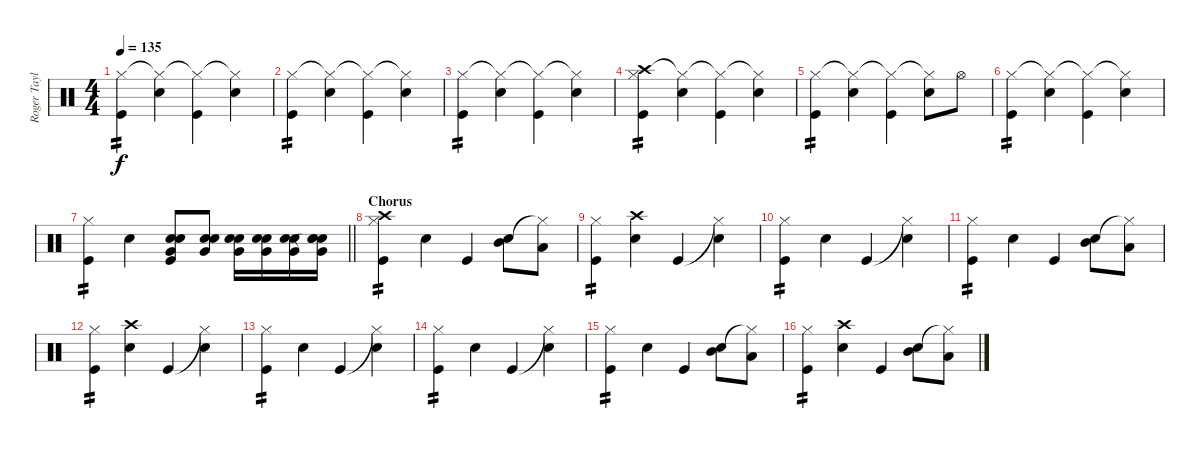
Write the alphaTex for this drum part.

\track ("Roger Taylor" "Roger Tayl") {instrument percussion}
\staff {score}
\articulation defaults
\ts (4 4)
\tempo 135
\clef neutral
\ks c
("Hi-Hat (closed)" "Kick (hit)").4{tp 2 dy f} ("Hi-Hat (closed)"{t} "Snare (hit) 2").4 ("Hi-Hat (closed)"{t} "Kick (hit)").4 ("Hi-Hat (closed)"{t} "Snare (hit) 2").4 |
("Hi-Hat (closed)" "Kick (hit)").4{tp 2} ("Hi-Hat (closed)"{t} "Snare (hit) 2").4 ("Hi-Hat (closed)"{t} "Kick (hit)").4 ("Hi-Hat (closed)"{t} "Snare (hit) 2").4 |
("Hi-Hat (closed)" "Kick (hit)").4{tp 2} ("Hi-Hat (closed)"{t} "Snare (hit) 2").4 ("Hi-Hat (closed)"{t} "Kick (hit)").4 ("Hi-Hat (closed)"{t} "Snare (hit) 2").4 |
("Crash high (hit)" "Hi-Hat (closed)" "Kick (hit)").4{tp 2} ("Hi-Hat (closed)"{t} "Snare (hit) 2").4 ("Hi-Hat (closed)"{t} "Kick (hit)").4 ("Hi-Hat (closed)"{t} "Snare (hit) 2").4 |
("Hi-Hat (closed)" "Kick (hit)").4{tp 2} ("Hi-Hat (closed)"{t} "Snare (hit) 2").4 ("Hi-Hat (closed)"{t} "Kick (hit)").4 ("Hi-Hat (closed)"{t} "Snare (hit) 2").8 "Hi-Hat (open)".8 |
("Hi-Hat (closed)" "Kick (hit)").4{tp 2} ("Hi-Hat (closed)"{t} "Snare (hit) 2").4 ("Hi-Hat (closed)"{t} "Kick (hit)").4 ("Hi-Hat (closed)"{t} "Snare (hit) 2").4 |
\barLineRight lightlight
("Hi-Hat (closed)" "Kick (hit)").4{tp 2} "Snare (hit) 2".4 ("Very Low Tom (hit)" "Electric Snare (hit)" "Snare (hit) 2" "Kick (hit)").8 ("Very Low Tom (hit)" "Electric Snare (hit)" "Snare (hit) 2").8 ("Very Low Tom (hit)" "Electric Snare (hit)" "Snare (hit) 2").16 ("Very Low Tom (hit)" "Electric Snare (hit)" "Snare (hit) 2").16 ("Very Low Tom (hit)" "Electric Snare (hit)" "Snare (hit) 2").16 ("Snare (hit)"{t} "Very Low Tom (hit)" "Electric Snare (hit)" "Snare (hit) 2").16 |
\section ("" "Chorus")
("Crash high (hit)" "Hi-Hat (closed)" "Kick (hit)").4{tp 2} "Snare (hit) 2".4 "Kick (hit)".4 ("Mid Tom (hit)" "Snare (hit) 2").8 ("Hi-Hat (closed)"{t} "Low Tom (hit)").8 |
("Hi-Hat (closed)" "Kick (hit)").4{tp 2} ("Crash high (hit)" "Snare (hit) 2").4 "Kick (hit)".4 ("Hi-Hat (closed)"{t} "Snare (hit) 2").4 |
("Hi-Hat (closed)" "Kick (hit)").4{tp 2} "Snare (hit) 2".4 "Kick (hit)".4 ("Hi-Hat (closed)"{t} "Snare (hit) 2").4 |
("Hi-Hat (closed)" "Kick (hit)").4{tp 2} "Snare (hit) 2".4 "Kick (hit)".4 ("Mid Tom (hit)" "Snare (hit) 2").8 ("Hi-Hat (closed)"{t} "Low Tom (hit)").8 |
("Hi-Hat (closed)" "Kick (hit)").4{tp 2} ("Crash high (hit)" "Snare (hit) 2").4 "Kick (hit)".4 ("Hi-Hat (closed)"{t} "Snare (hit) 2").4 |
("Hi-Hat (closed)" "Kick (hit)").4{tp 2} "Snare (hit) 2".4 "Kick (hit)".4 ("Hi-Hat (closed)"{t} "Snare (hit) 2").4 |
("Hi-Hat (closed)" "Kick (hit)").4{tp 2} "Snare (hit) 2".4 "Kick (hit)".4 ("Hi-Hat (closed)"{t} "Snare (hit) 2").4 |
("Hi-Hat (closed)" "Kick (hit)").4{tp 2} "Snare (hit) 2".4 "Kick (hit)".4 ("Mid Tom (hit)" "Snare (hit) 2").8 ("Hi-Hat (closed)"{t} "Low Tom (hit)").8 |
("Hi-Hat (closed)" "Kick (hit)").4{tp 2} ("Crash high (hit)" "Snare (hit) 2").4 "Kick (hit)".4 ("Mid Tom (hit)" "Snare (hit) 2").8 ("Hi-Hat (closed)"{t} "Low Tom (hit)").8
